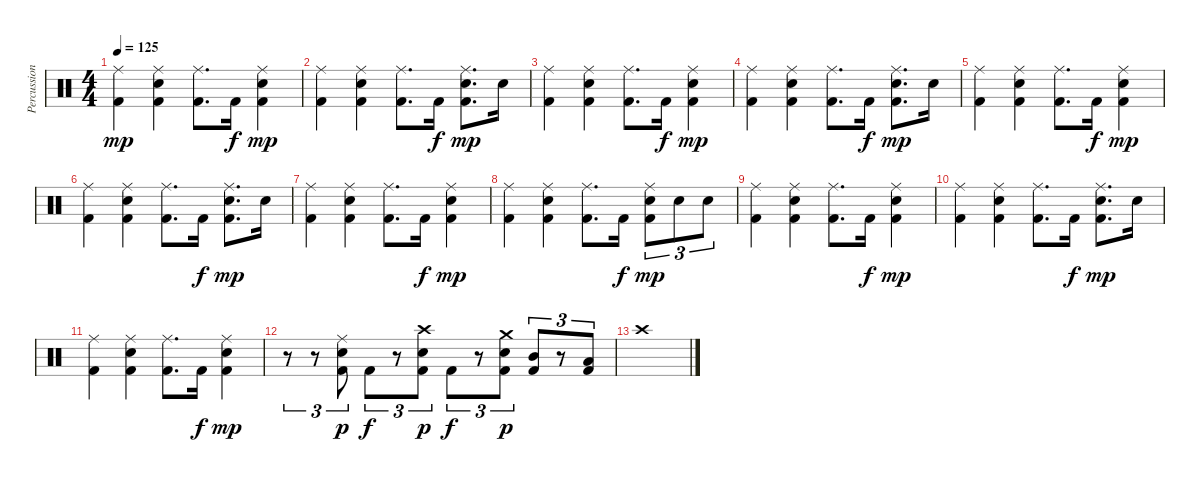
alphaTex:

\track ("Percussions" "Percussion") {instrument percussion}
\staff {score}
\articulation defaults
\ts (4 4)
\tempo 125
\clef neutral
\ks c
("Ride (middle)" "Kick (hit) 2").4{dy mp} ("Ride (middle)" "Electric Snare (hit)" "Kick (hit) 2").4 ("Ride (middle)" "Kick (hit) 2").8{d} "Kick (hit) 2".16{dy f} ("Ride (middle)" "Electric Snare (hit)" "Kick (hit) 2").4{dy mp} |
("Ride (middle)" "Kick (hit) 2").4 ("Ride (middle)" "Electric Snare (hit)" "Kick (hit) 2").4 ("Ride (middle)" "Kick (hit) 2").8{d} "Kick (hit) 2".16{dy f} ("Ride (middle)" "Electric Snare (hit)" "Kick (hit) 2").8{d dy mp} "Electric Snare (hit)".16 |
("Ride (middle)" "Kick (hit) 2").4 ("Ride (middle)" "Electric Snare (hit)" "Kick (hit) 2").4 ("Ride (middle)" "Kick (hit) 2").8{d} "Kick (hit) 2".16{dy f} ("Ride (middle)" "Electric Snare (hit)" "Kick (hit) 2").4{dy mp} |
("Ride (middle)" "Kick (hit) 2").4 ("Ride (middle)" "Electric Snare (hit)" "Kick (hit) 2").4 ("Ride (middle)" "Kick (hit) 2").8{d} "Kick (hit) 2".16{dy f} ("Ride (middle)" "Electric Snare (hit)" "Kick (hit) 2").8{d dy mp} "Electric Snare (hit)".16 |
("Ride (middle)" "Kick (hit) 2").4 ("Ride (middle)" "Electric Snare (hit)" "Kick (hit) 2").4 ("Ride (middle)" "Kick (hit) 2").8{d} "Kick (hit) 2".16{dy f} ("Ride (middle)" "Electric Snare (hit)" "Kick (hit) 2").4{dy mp} |
("Ride (middle)" "Kick (hit) 2").4 ("Ride (middle)" "Electric Snare (hit)" "Kick (hit) 2").4 ("Ride (middle)" "Kick (hit) 2").8{d} "Kick (hit) 2".16{dy f} ("Ride (middle)" "Electric Snare (hit)" "Kick (hit) 2").8{d dy mp} "Electric Snare (hit)".16 |
("Ride (middle)" "Kick (hit) 2").4 ("Ride (middle)" "Electric Snare (hit)" "Kick (hit) 2").4 ("Ride (middle)" "Kick (hit) 2").8{d} "Kick (hit) 2".16{dy f} ("Ride (middle)" "Electric Snare (hit)" "Kick (hit) 2").4{dy mp} |
("Ride (middle)" "Kick (hit) 2").4 ("Ride (middle)" "Electric Snare (hit)" "Kick (hit) 2").4 ("Ride (middle)" "Kick (hit) 2").8{d} "Kick (hit) 2".16{dy f} ("Ride (middle)" "Electric Snare (hit)" "Kick (hit) 2").8{tu (3 2) dy mp} "Electric Snare (hit)".8{tu (3 2)} "Electric Snare (hit)".8{tu (3 2)} |
("Ride (middle)" "Kick (hit) 2").4 ("Ride (middle)" "Electric Snare (hit)" "Kick (hit) 2").4 ("Ride (middle)" "Kick (hit) 2").8{d} "Kick (hit) 2".16{dy f} ("Ride (middle)" "Electric Snare (hit)" "Kick (hit) 2").4{dy mp} |
("Ride (middle)" "Kick (hit) 2").4 ("Ride (middle)" "Electric Snare (hit)" "Kick (hit) 2").4 ("Ride (middle)" "Kick (hit) 2").8{d} "Kick (hit) 2".16{dy f} ("Ride (middle)" "Electric Snare (hit)" "Kick (hit) 2").8{d dy mp} "Electric Snare (hit)".16 |
("Ride (middle)" "Kick (hit) 2").4 ("Ride (middle)" "Electric Snare (hit)" "Kick (hit) 2").4 ("Ride (middle)" "Kick (hit) 2").8{d} "Kick (hit) 2".16{dy f} ("Ride (middle)" "Electric Snare (hit)" "Kick (hit) 2").4{dy mp} |
r.8{tu (3 2)} r.8{tu (3 2)} ("Ride (middle)" "Electric Snare (hit)" "Kick (hit) 2").8{tu (3 2) dy p} "Kick (hit) 2".8{tu (3 2) dy f} r.8{tu (3 2)} ("Crash high (hit)" "Electric Snare (hit)" "Kick (hit) 2").8{tu (3 2) dy p} "Kick (hit) 2".8{tu (3 2) dy f} r.8{tu (3 2)} ("Crash medium (hit)" "Electric Snare (hit)" "Kick (hit) 2").8{tu (3 2) dy p} ("Mid Tom (hit)" "Kick (hit) 2").8{tu (3 2)} r.8{tu (3 2)} ("Low Tom (hit)" "Kick (hit) 2").8{tu (3 2)} |
"Crash high (hit)".1
